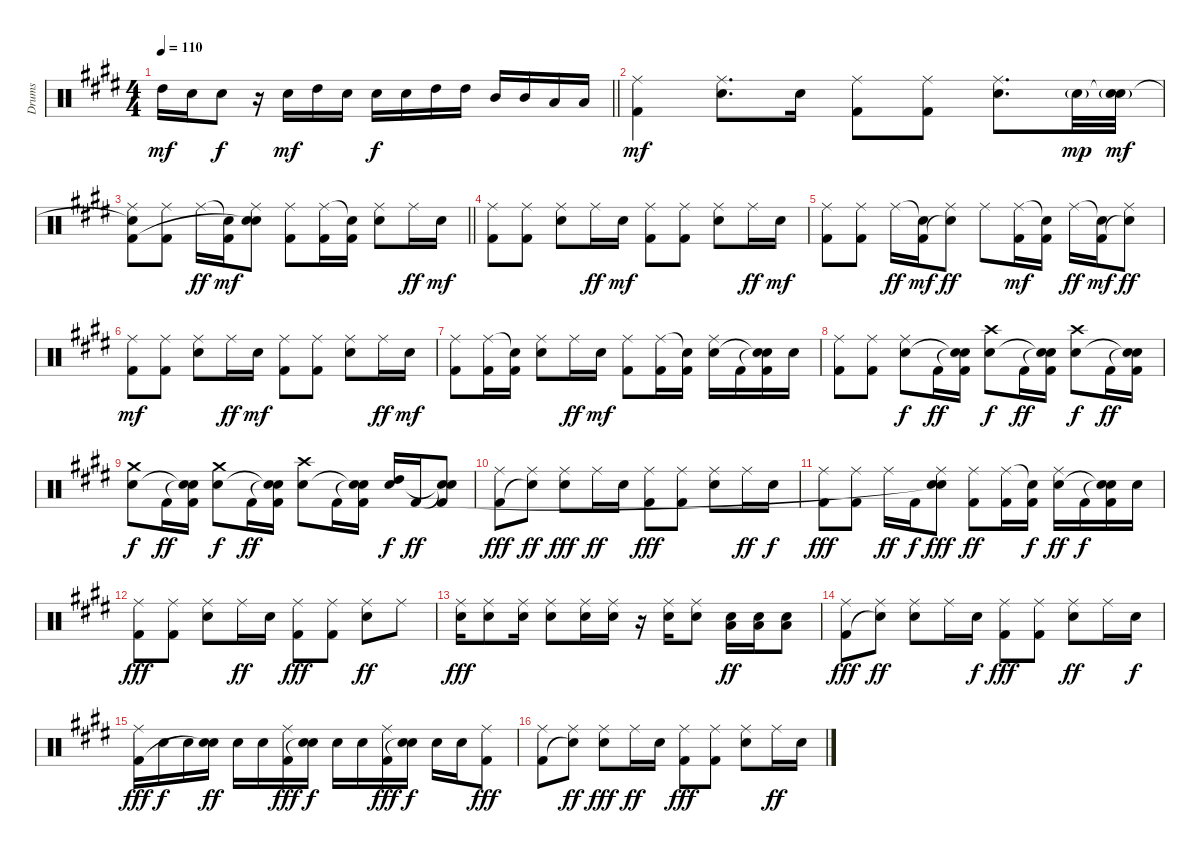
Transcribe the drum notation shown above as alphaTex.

\track ("Drums" "Drums") {instrument percussion}
\staff {score}
\articulation defaults
\ts (4 4)
\tempo 110
\clef neutral
\barLineRight lightlight
\ks c#minor "High Tom (hit)".16{dy mf} "Electric Snare (hit)".16 "Electric Snare (hit)".8{dy f}
r.16 "Electric Snare (hit)".16{dy mf} "High Tom (hit)".16 "Electric Snare (hit)".16 "Electric Snare (hit)".16{dy f} "Electric Snare (hit)".16 "High Tom (hit)".16 "High Tom (hit)".16 "Mid Tom (hit)".16 "Mid Tom (hit)".16 "Low Tom (hit)".16 "Low Tom (hit)".16 |
("Ride (middle)" "Kick (hit) 2").4{dy mf} ("Ride (middle)" "Electric Snare (hit)").8{d} "Electric Snare (hit)".16 ("Ride (middle)" "Kick (hit) 2").8 ("Ride (middle)" "Kick (hit) 2").8 ("Ride (middle)" "Electric Snare (hit)").8{d} "Electric Snare (hit)"{g}.32{dy mp} ("Snare (hit)"{t} "Electric Snare (hit)"{g}).32{dy mf} |
\barLineRight lightlight
("Ride (middle)" "Snare (hit)"{t} "Kick (hit) 2").8 ("Ride (middle)" "Kick (hit) 2").8 "Ride (middle)".16{dy ff} ("Snare (hit)"{t} "Kick (hit) 2").16{dy mf} ("Ride (middle)" "Electric Snare (hit)" "Snare (hit)"{t}).8 ("Ride (middle)" "Kick (hit) 2").8 ("Ride (middle)" "Kick (hit) 2").16 ("Snare (hit)"{t} "Kick (hit) 2").16 ("Ride (middle)" "Electric Snare (hit)").8 "Ride (middle)".16{dy ff} "Electric Snare (hit)".16{dy mf} |
("Ride (middle)" "Kick (hit) 2").8 ("Ride (middle)" "Kick (hit) 2").8 ("Ride (middle)" "Electric Snare (hit)").8 "Ride (middle)".16{dy ff} "Electric Snare (hit)".16{dy mf} ("Ride (middle)" "Kick (hit) 2").8 ("Ride (middle)" "Kick (hit) 2").8 ("Ride (middle)" "Electric Snare (hit)").8 "Ride (middle)".16{dy ff} "Electric Snare (hit)".16{dy mf} |
("Ride (middle)" "Kick (hit) 2").8 ("Ride (middle)" "Kick (hit) 2").8 "Ride (middle)".16{dy ff} ("Snare (hit)"{t} "Kick (hit) 2").16{dy mf} ("Ride (middle)" "Snare (hit)"{t}).8{dy ff} "Ride (middle)".8 ("Ride (middle)" "Kick (hit) 2").16{dy mf} ("Snare (hit)"{t} "Kick (hit) 2").16 "Ride (middle)".16{dy ff} ("Snare (hit)"{t} "Kick (hit) 2").16{dy mf} ("Ride (middle)" "Snare (hit)"{t}).8{dy ff} |
("Ride (middle)" "Kick (hit) 2").8{dy mf} ("Ride (middle)" "Kick (hit) 2").8 ("Ride (middle)" "Electric Snare (hit)").8 "Ride (middle)".16{dy ff} "Electric Snare (hit)".16{dy mf} ("Ride (middle)" "Kick (hit) 2").8 ("Ride (middle)" "Kick (hit) 2").8 ("Ride (middle)" "Electric Snare (hit)").8 "Ride (middle)".16{dy ff} "Electric Snare (hit)".16{dy mf} |
("Ride (middle)" "Kick (hit) 2").8 ("Ride (middle)" "Kick (hit) 2").16 ("Snare (hit)"{t} "Kick (hit) 2").16 ("Ride (middle)" "Electric Snare (hit)").8 "Ride (middle)".16{dy ff} "Electric Snare (hit)".16{dy mf} ("Ride (middle)" "Kick (hit) 2").8 ("Ride (middle)" "Kick (hit) 2").16 ("Snare (hit)"{t} "Kick (hit) 2").16 ("Ride (middle)" "Electric Snare (hit)").16 "Kick (hit) 2".16 ("Snare (hit)"{t} "Snare (hit)"{t} "Kick (hit) 2").16 "Electric Snare (hit)".16 |
("Ride (middle)" "Kick (hit) 2").8 ("Ride (middle)" "Kick (hit) 2").8 ("Ride (middle)" "Electric Snare (hit)").8{dy f} "Kick (hit) 2".16{dy ff} ("Snare (hit)"{t} "Snare (hit)"{t} "Kick (hit) 2").16 ("Crash high (hit)" "Electric Snare (hit)").8{dy f} "Kick (hit) 2".16{dy ff} ("Snare (hit)"{t} "Snare (hit)"{t} "Kick (hit) 2").16 ("Crash high (hit)" "Electric Snare (hit)").8{dy f} "Kick (hit) 2".16{dy ff} ("Snare (hit)"{t} "Snare (hit)"{t} "Kick (hit) 2").16 |
("Crash medium (hit)" "Electric Snare (hit)").8{dy f} "Kick (hit) 2".16{dy ff} ("Snare (hit)"{t} "Snare (hit)"{t} "Kick (hit) 2").16 ("Crash medium (hit)" "Electric Snare (hit)").8{dy f} "Kick (hit) 2".16{dy ff} ("Snare (hit)"{t} "Snare (hit)"{t} "Kick (hit) 2").16 ("Crash high (hit)" "Electric Snare (hit)").8 "Kick (hit) 2".16 ("Snare (hit)"{t} "Snare (hit)"{t} "Kick (hit) 2").16 ("High Tom (hit)" "Electric Snare (hit)").16{dy f} "Kick (hit) 2".16{dy ff} ("Snare (hit)"{t} "Snare (hit)"{t} "Kick (hit) 2").8 |
("Ride (middle)" "Kick (hit) 2").8{dy fff} ("Ride (middle)" "Snare (hit)"{t}).8{dy ff} ("Ride (middle)" "Electric Snare (hit)").8{dy fff} "Ride (middle)".16{dy ff} "Electric Snare (hit)".16 ("Ride (middle)" "Kick (hit) 2").8{dy fff} ("Ride (middle)" "Kick (hit) 2").8 ("Ride (middle)" "Electric Snare (hit)").8 "Ride (middle)".16{dy ff} "Electric Snare (hit)".16{dy f} |
("Ride (middle)" "Kick (hit) 2").8{dy fff} ("Ride (middle)" "Kick (hit) 2").8 "Ride (middle)".16{dy ff} "Kick (hit) 2".16{dy f} ("Ride (middle)" "Electric Snare (hit)" "Snare (hit)"{t}).8{dy fff} ("Ride (middle)" "Kick (hit) 2").8{dy ff} ("Ride (middle)" "Kick (hit) 2").16 ("Snare (hit)"{t} "Kick (hit) 2").16{dy f} ("Ride (middle)" "Electric Snare (hit)").16{dy ff} "Kick (hit) 2".16{dy f} ("Snare (hit)"{t} "Snare (hit)"{t} "Kick (hit) 2").16 "Electric Snare (hit)".16 |
("Ride (middle)" "Kick (hit) 2").8{dy fff} ("Ride (middle)" "Kick (hit) 2").8 ("Ride (middle)" "Electric Snare (hit)").8 "Ride (middle)".16{dy ff} "Electric Snare (hit)".16 ("Ride (middle)" "Kick (hit) 2").8{dy fff} ("Ride (middle)" "Kick (hit) 2").8 ("Ride (middle)" "Electric Snare (hit)").8{dy ff} "Ride (middle)".8 |
("Ride (middle)" "Electric Snare (hit)").16{dy fff} ("Ride (middle)" "Electric Snare (hit)").8 ("Ride (middle)" "Electric Snare (hit)").16 ("Ride (middle)" "Electric Snare (hit)").8 ("Ride (middle)" "Electric Snare (hit)").16 ("Ride (middle)" "Electric Snare (hit)").16 r.16 ("Ride (middle)" "Electric Snare (hit)").16 ("Ride (middle)" "Electric Snare (hit)").8 ("Electric Snare (hit)" "Low Tom (hit)").16{dy ff} ("Electric Snare (hit)" "Low Tom (hit)").16 ("Electric Snare (hit)" "Low Tom (hit)").8 |
("Ride (middle)" "Kick (hit) 2").8{dy fff} ("Ride (middle)" "Snare (hit)"{t}).8{dy ff} ("Ride (middle)" "Electric Snare (hit)").8 "Ride (middle)".16 "Electric Snare (hit)".16{dy f} ("Ride (middle)" "Kick (hit) 2").8{dy fff} ("Ride (middle)" "Kick (hit) 2").8 ("Ride (middle)" "Electric Snare (hit)").8{dy ff} "Ride (middle)".16 "Electric Snare (hit)".16{dy f} |
("Ride (middle)" "Kick (hit) 2").16{dy fff} "Electric Snare (hit)".16{dy f} "Electric Snare (hit)".16 ("Electric Snare (hit)" "Snare (hit)"{t}).16{dy ff} "Electric Snare (hit)".16 "Electric Snare (hit)".16 ("Ride (middle)" "Kick (hit) 2").16{dy fff} ("Electric Snare (hit)" "Snare (hit)"{t}).16{dy f} "Electric Snare (hit)".16 "Electric Snare (hit)".16 ("Ride (middle)" "Kick (hit) 2").16{dy fff} ("Electric Snare (hit)" "Snare (hit)"{t}).16{dy f} "Electric Snare (hit)".16 "Electric Snare (hit)".16 ("Ride (middle)" "Kick (hit) 2").8{dy fff} |
("Ride (middle)" "Kick (hit) 2").8 ("Ride (middle)" "Snare (hit)"{t}).8{dy ff} ("Ride (middle)" "Electric Snare (hit)").8{dy fff} "Ride (middle)".16{dy ff} "Electric Snare (hit)".16 ("Ride (middle)" "Kick (hit) 2").8{dy fff} ("Ride (middle)" "Kick (hit) 2").8 ("Ride (middle)" "Electric Snare (hit)").8 "Ride (middle)".16{dy ff} "Electric Snare (hit)".16
